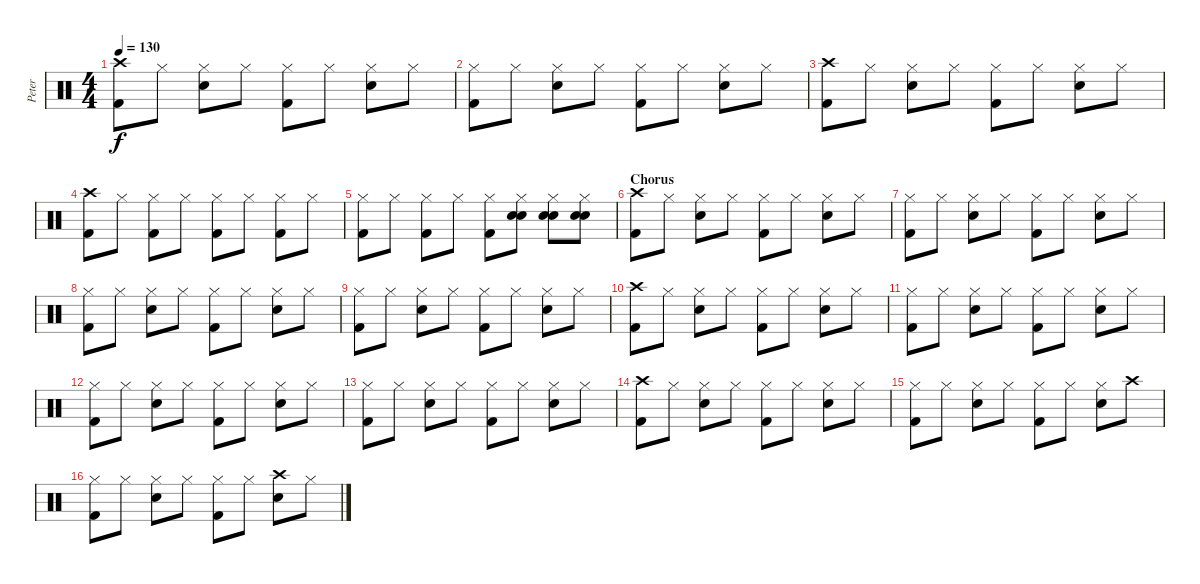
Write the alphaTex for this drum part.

\track ("Peter" "Peter") {instrument percussion}
\staff {score}
\articulation defaults
\ts (4 4)
\tempo 130
\clef neutral
\ks c
("Crash high (hit)" "Kick (hit) 2").8{dy f} "Hi-Hat (closed)".8 ("Hi-Hat (closed)" "Snare (hit) 2").8 "Hi-Hat (closed)".8 ("Hi-Hat (closed)" "Kick (hit) 2").8 "Hi-Hat (closed)".8 ("Hi-Hat (closed)" "Snare (hit) 2").8 "Hi-Hat (closed)".8 |
("Hi-Hat (closed)" "Kick (hit) 2").8 "Hi-Hat (closed)".8 ("Hi-Hat (closed)" "Snare (hit) 2").8 "Hi-Hat (closed)".8 ("Hi-Hat (closed)" "Kick (hit) 2").8 "Hi-Hat (closed)".8 ("Hi-Hat (closed)" "Snare (hit) 2").8 "Hi-Hat (closed)".8 |
("Crash high (hit)" "Kick (hit) 2").8 "Hi-Hat (closed)".8 ("Hi-Hat (closed)" "Snare (hit) 2").8 "Hi-Hat (closed)".8 ("Hi-Hat (closed)" "Kick (hit) 2").8 "Hi-Hat (closed)".8 ("Hi-Hat (closed)" "Snare (hit) 2").8 "Hi-Hat (closed)".8 |
("Crash high (hit)" "Kick (hit) 2").8 "Hi-Hat (closed)".8 ("Hi-Hat (closed)" "Kick (hit) 2").8 "Hi-Hat (closed)".8 ("Hi-Hat (closed)" "Kick (hit) 2").8 "Hi-Hat (closed)".8 ("Hi-Hat (closed)" "Kick (hit) 2").8 "Hi-Hat (closed)".8 |
("Hi-Hat (closed)" "Kick (hit) 2").8 "Hi-Hat (closed)".8 ("Hi-Hat (closed)" "Kick (hit) 2").8 "Hi-Hat (closed)".8 ("Hi-Hat (closed)" "Kick (hit) 2").8 ("Hi-Hat (closed)" "Electric Snare (hit)" "Electric Snare (hit)").8 ("Hi-Hat (closed)" "Electric Snare (hit)" "Electric Snare (hit)").8 ("Hi-Hat (closed)" "Electric Snare (hit)" "Electric Snare (hit)").8 |
\section ("" "Chorus")
("Crash high (hit)" "Kick (hit) 2").8 "Hi-Hat (closed)".8 ("Hi-Hat (closed)" "Snare (hit) 2").8 "Hi-Hat (closed)".8 ("Hi-Hat (closed)" "Kick (hit) 2").8 "Hi-Hat (closed)".8 ("Hi-Hat (closed)" "Snare (hit) 2").8 "Hi-Hat (closed)".8 |
("Hi-Hat (closed)" "Kick (hit) 2").8 "Hi-Hat (closed)".8 ("Hi-Hat (closed)" "Snare (hit) 2").8 "Hi-Hat (closed)".8 ("Hi-Hat (closed)" "Kick (hit) 2").8 "Hi-Hat (closed)".8 ("Hi-Hat (closed)" "Snare (hit) 2").8 "Hi-Hat (closed)".8 |
("Hi-Hat (closed)" "Kick (hit) 2").8 "Hi-Hat (closed)".8 ("Hi-Hat (closed)" "Snare (hit) 2").8 "Hi-Hat (closed)".8 ("Hi-Hat (closed)" "Kick (hit) 2").8 "Hi-Hat (closed)".8 ("Hi-Hat (closed)" "Snare (hit) 2").8 "Hi-Hat (closed)".8 |
("Hi-Hat (closed)" "Kick (hit) 2").8 "Hi-Hat (closed)".8 ("Hi-Hat (closed)" "Snare (hit) 2").8 "Hi-Hat (closed)".8 ("Hi-Hat (closed)" "Kick (hit) 2").8 "Hi-Hat (closed)".8 ("Hi-Hat (closed)" "Snare (hit) 2").8 "Hi-Hat (closed)".8 |
("Crash high (hit)" "Kick (hit) 2").8 "Hi-Hat (closed)".8 ("Hi-Hat (closed)" "Snare (hit) 2").8 "Hi-Hat (closed)".8 ("Hi-Hat (closed)" "Kick (hit) 2").8 "Hi-Hat (closed)".8 ("Hi-Hat (closed)" "Snare (hit) 2").8 "Hi-Hat (closed)".8 |
("Hi-Hat (closed)" "Kick (hit) 2").8 "Hi-Hat (closed)".8 ("Hi-Hat (closed)" "Snare (hit) 2").8 "Hi-Hat (closed)".8 ("Hi-Hat (closed)" "Kick (hit) 2").8 "Hi-Hat (closed)".8 ("Hi-Hat (closed)" "Snare (hit) 2").8 "Hi-Hat (closed)".8 |
("Hi-Hat (closed)" "Kick (hit) 2").8 "Hi-Hat (closed)".8 ("Hi-Hat (closed)" "Snare (hit) 2").8 "Hi-Hat (closed)".8 ("Hi-Hat (closed)" "Kick (hit) 2").8 "Hi-Hat (closed)".8 ("Hi-Hat (closed)" "Snare (hit) 2").8 "Hi-Hat (closed)".8 |
("Hi-Hat (closed)" "Kick (hit) 2").8 "Hi-Hat (closed)".8 ("Hi-Hat (closed)" "Snare (hit) 2").8 "Hi-Hat (closed)".8 ("Hi-Hat (closed)" "Kick (hit) 2").8 "Hi-Hat (closed)".8 ("Hi-Hat (closed)" "Snare (hit) 2").8 "Hi-Hat (closed)".8 |
("Crash high (hit)" "Kick (hit) 2").8 "Hi-Hat (closed)".8 ("Hi-Hat (closed)" "Snare (hit) 2").8 "Hi-Hat (closed)".8 ("Hi-Hat (closed)" "Kick (hit) 2").8 "Hi-Hat (closed)".8 ("Hi-Hat (closed)" "Snare (hit) 2").8 "Hi-Hat (closed)".8 |
("Hi-Hat (closed)" "Kick (hit) 2").8 "Hi-Hat (closed)".8 ("Hi-Hat (closed)" "Snare (hit) 2").8 "Hi-Hat (closed)".8 ("Hi-Hat (closed)" "Kick (hit) 2").8 "Hi-Hat (closed)".8 ("Hi-Hat (closed)" "Snare (hit) 2").8 "Crash high (hit)".8 |
("Hi-Hat (closed)" "Kick (hit) 2").8 "Hi-Hat (closed)".8 ("Hi-Hat (closed)" "Snare (hit) 2").8 "Hi-Hat (closed)".8 ("Hi-Hat (closed)" "Kick (hit) 2").8 "Hi-Hat (closed)".8 ("Crash high (hit)" "Snare (hit) 2").8 "Hi-Hat (closed)".8
